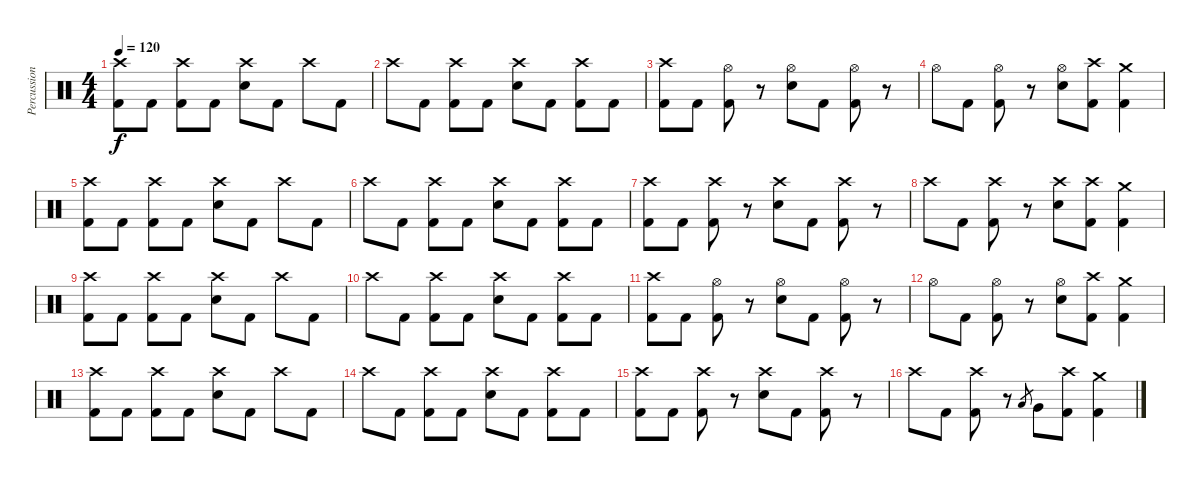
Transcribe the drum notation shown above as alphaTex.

\track ("Percussion" "Percussion") {instrument percussion}
\staff {score}
\articulation defaults
\ts (4 4)
\tempo 120
\clef neutral
\ks c
("Crash high (hit)" "Kick (hit) 2").8{dy f} "Kick (hit) 2".8 ("Crash high (hit)" "Kick (hit) 2").8 "Kick (hit) 2".8 ("Crash high (hit)" "Snare (hit) 2").8 "Kick (hit) 2".8 "Crash high (hit)".8 "Kick (hit) 2".8 |
"Crash high (hit)".8 "Kick (hit) 2".8 ("Crash high (hit)" "Kick (hit) 2").8 "Kick (hit) 2".8 ("Crash high (hit)" "Snare (hit) 2").8 "Kick (hit) 2".8 ("Crash high (hit)" "Kick (hit) 2").8 "Kick (hit) 2".8 |
("Crash high (hit)" "Kick (hit) 2").8 "Kick (hit) 2".8 ("Hi-Hat (open)" "Kick (hit) 2").8 r.8 ("Hi-Hat (open)" "Snare (hit) 2").8 "Kick (hit) 2".8 ("Hi-Hat (open)" "Kick (hit) 2").8 r.8 |
"Hi-Hat (open)".8 "Kick (hit) 2".8 ("Hi-Hat (open)" "Kick (hit) 2").8 r.8 ("Hi-Hat (open)" "Snare (hit) 2").8 ("Crash high (hit)" "Kick (hit) 2").8 ("Crash medium (hit)" "Kick (hit) 2").4 |
("Crash high (hit)" "Kick (hit) 2").8 "Kick (hit) 2".8 ("Crash high (hit)" "Kick (hit) 2").8 "Kick (hit) 2".8 ("Crash high (hit)" "Snare (hit) 2").8 "Kick (hit) 2".8 "Crash high (hit)".8 "Kick (hit) 2".8 |
"Crash high (hit)".8 "Kick (hit) 2".8 ("Crash high (hit)" "Kick (hit) 2").8 "Kick (hit) 2".8 ("Crash high (hit)" "Snare (hit) 2").8 "Kick (hit) 2".8 ("Crash high (hit)" "Kick (hit) 2").8 "Kick (hit) 2".8 |
("Crash high (hit)" "Kick (hit) 2").8 "Kick (hit) 2".8 ("Crash high (hit)" "Kick (hit) 2").8 r.8 ("Crash high (hit)" "Snare (hit) 2").8 "Kick (hit) 2".8 ("Crash high (hit)" "Kick (hit) 2").8 r.8 |
"Crash high (hit)".8 "Kick (hit) 2".8 ("Crash high (hit)" "Kick (hit) 2").8 r.8 ("Crash high (hit)" "Snare (hit) 2").8 ("Crash high (hit)" "Kick (hit) 2").8 ("Crash medium (hit)" "Kick (hit) 2").4 |
("Crash high (hit)" "Kick (hit) 2").8 "Kick (hit) 2".8 ("Crash high (hit)" "Kick (hit) 2").8 "Kick (hit) 2".8 ("Crash high (hit)" "Snare (hit) 2").8 "Kick (hit) 2".8 "Crash high (hit)".8 "Kick (hit) 2".8 |
"Crash high (hit)".8 "Kick (hit) 2".8 ("Crash high (hit)" "Kick (hit) 2").8 "Kick (hit) 2".8 ("Crash high (hit)" "Snare (hit) 2").8 "Kick (hit) 2".8 ("Crash high (hit)" "Kick (hit) 2").8 "Kick (hit) 2".8 |
("Crash high (hit)" "Kick (hit) 2").8 "Kick (hit) 2".8 ("Hi-Hat (open)" "Kick (hit) 2").8 r.8 ("Hi-Hat (open)" "Snare (hit) 2").8 "Kick (hit) 2".8 ("Hi-Hat (open)" "Kick (hit) 2").8 r.8 |
"Hi-Hat (open)".8 "Kick (hit) 2".8 ("Hi-Hat (open)" "Kick (hit) 2").8 r.8 ("Hi-Hat (open)" "Snare (hit) 2").8 ("Crash high (hit)" "Kick (hit) 2").8 ("Crash medium (hit)" "Kick (hit) 2").4 |
("Crash high (hit)" "Kick (hit) 2").8 "Kick (hit) 2".8 ("Crash high (hit)" "Kick (hit) 2").8 "Kick (hit) 2".8 ("Crash high (hit)" "Snare (hit) 2").8 "Kick (hit) 2".8 "Crash high (hit)".8 "Kick (hit) 2".8 |
"Crash high (hit)".8 "Kick (hit) 2".8 ("Crash high (hit)" "Kick (hit) 2").8 "Kick (hit) 2".8 ("Crash high (hit)" "Snare (hit) 2").8 "Kick (hit) 2".8 ("Crash high (hit)" "Kick (hit) 2").8 "Kick (hit) 2".8 |
("Crash high (hit)" "Kick (hit) 2").8 "Kick (hit) 2".8 ("Crash high (hit)" "Kick (hit) 2").8 r.8 ("Crash high (hit)" "Snare (hit) 2").8 "Kick (hit) 2".8 ("Crash high (hit)" "Kick (hit) 2").8 r.8 |
"Crash high (hit)".8 "Kick (hit) 2".8 ("Crash high (hit)" "Kick (hit) 2").8 r.8 "Low Floor Tom (hit)".8{gr} "Very Low Tom (hit)".8 ("Crash high (hit)" "Kick (hit) 2").8 ("Crash medium (hit)" "Kick (hit) 2").4
